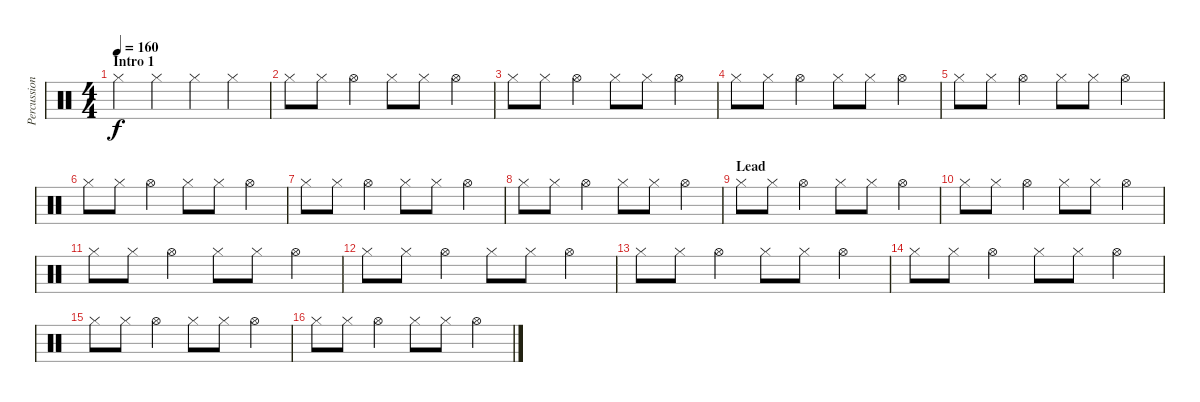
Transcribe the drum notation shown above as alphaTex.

\track ("Percussion" "Percussion") {instrument percussion}
\staff {score}
\articulation defaults
\ts (4 4)
\section ("" "Intro 1")
\tempo 160
\tempo 100
\tempo 160
\clef neutral
\ks c "Hi-Hat (closed)".4{dy f} "Hi-Hat (closed)".4 "Hi-Hat (closed)".4 "Hi-Hat (closed)".4
|
"Hi-Hat (closed)".8 "Hi-Hat (closed)".8 "Hi-Hat (open)".4 "Hi-Hat (closed)".8 "Hi-Hat (closed)".8 "Hi-Hat (open)".4 |
"Hi-Hat (closed)".8 "Hi-Hat (closed)".8 "Hi-Hat (open)".4 "Hi-Hat (closed)".8 "Hi-Hat (closed)".8 "Hi-Hat (open)".4 |
"Hi-Hat (closed)".8 "Hi-Hat (closed)".8 "Hi-Hat (open)".4 "Hi-Hat (closed)".8 "Hi-Hat (closed)".8 "Hi-Hat (open)".4 |
"Hi-Hat (closed)".8 "Hi-Hat (closed)".8 "Hi-Hat (open)".4 "Hi-Hat (closed)".8 "Hi-Hat (closed)".8 "Hi-Hat (open)".4 |
"Hi-Hat (closed)".8 "Hi-Hat (closed)".8 "Hi-Hat (open)".4 "Hi-Hat (closed)".8 "Hi-Hat (closed)".8 "Hi-Hat (open)".4 |
"Hi-Hat (closed)".8 "Hi-Hat (closed)".8 "Hi-Hat (open)".4 "Hi-Hat (closed)".8 "Hi-Hat (closed)".8 "Hi-Hat (open)".4 |
"Hi-Hat (closed)".8 "Hi-Hat (closed)".8 "Hi-Hat (open)".4 "Hi-Hat (closed)".8 "Hi-Hat (closed)".8 "Hi-Hat (open)".4 |
\section ("" "Lead")
"Hi-Hat (closed)".8 "Hi-Hat (closed)".8 "Hi-Hat (open)".4 "Hi-Hat (closed)".8 "Hi-Hat (closed)".8 "Hi-Hat (open)".4 |
"Hi-Hat (closed)".8 "Hi-Hat (closed)".8 "Hi-Hat (open)".4 "Hi-Hat (closed)".8 "Hi-Hat (closed)".8 "Hi-Hat (open)".4 |
"Hi-Hat (closed)".8 "Hi-Hat (closed)".8 "Hi-Hat (open)".4 "Hi-Hat (closed)".8 "Hi-Hat (closed)".8 "Hi-Hat (open)".4 |
"Hi-Hat (closed)".8 "Hi-Hat (closed)".8 "Hi-Hat (open)".4 "Hi-Hat (closed)".8 "Hi-Hat (closed)".8 "Hi-Hat (open)".4 |
"Hi-Hat (closed)".8 "Hi-Hat (closed)".8 "Hi-Hat (open)".4 "Hi-Hat (closed)".8 "Hi-Hat (closed)".8 "Hi-Hat (open)".4 |
"Hi-Hat (closed)".8 "Hi-Hat (closed)".8 "Hi-Hat (open)".4 "Hi-Hat (closed)".8 "Hi-Hat (closed)".8 "Hi-Hat (open)".4 |
"Hi-Hat (closed)".8 "Hi-Hat (closed)".8 "Hi-Hat (open)".4 "Hi-Hat (closed)".8 "Hi-Hat (closed)".8 "Hi-Hat (open)".4 |
"Hi-Hat (closed)".8 "Hi-Hat (closed)".8 "Hi-Hat (open)".4 "Hi-Hat (closed)".8 "Hi-Hat (closed)".8 "Hi-Hat (open)".4
